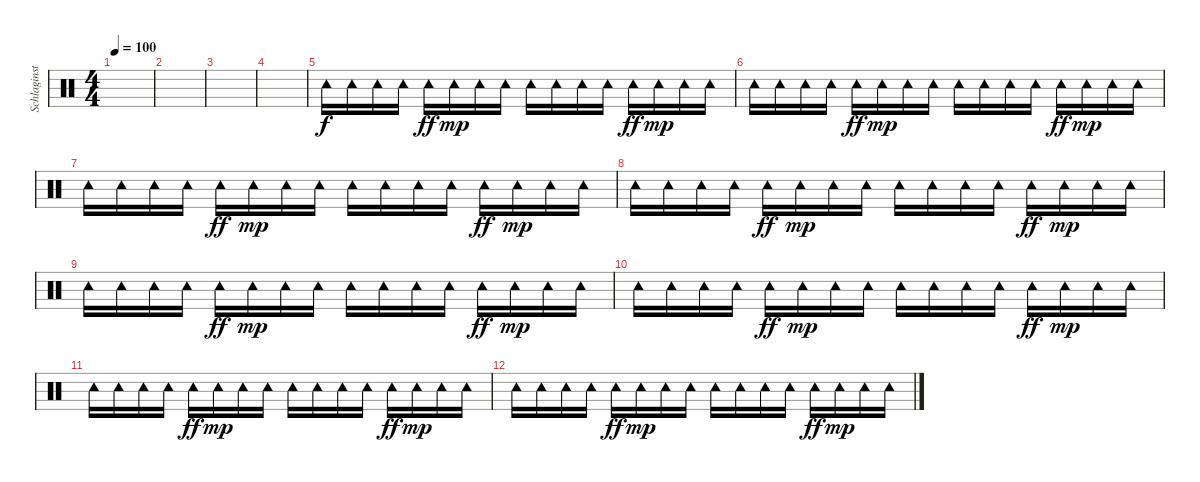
\track ("Schlaginstrumente - Auswahl" "Schlaginst") {instrument percussion}
\staff {score}
\articulation defaults
\ts (4 4)
\tempo 100
\clef neutral
\ks c
|
|
|
|
"Tambourine (hit)".16 "Tambourine (hit)".16 "Tambourine (hit)".16 "Tambourine (hit)".16 "Tambourine (hit)".16{dy ff} "Tambourine (hit)".16{dy mp} "Tambourine (hit)".16 "Tambourine (hit)".16 "Tambourine (hit)".16 "Tambourine (hit)".16 "Tambourine (hit)".16 "Tambourine (hit)".16 "Tambourine (hit)".16{dy ff} "Tambourine (hit)".16{dy mp} "Tambourine (hit)".16 "Tambourine (hit)".16 |
"Tambourine (hit)".16 "Tambourine (hit)".16 "Tambourine (hit)".16 "Tambourine (hit)".16 "Tambourine (hit)".16{dy ff} "Tambourine (hit)".16{dy mp} "Tambourine (hit)".16 "Tambourine (hit)".16 "Tambourine (hit)".16 "Tambourine (hit)".16 "Tambourine (hit)".16 "Tambourine (hit)".16 "Tambourine (hit)".16{dy ff} "Tambourine (hit)".16{dy mp} "Tambourine (hit)".16 "Tambourine (hit)".16 |
"Tambourine (hit)".16 "Tambourine (hit)".16 "Tambourine (hit)".16 "Tambourine (hit)".16 "Tambourine (hit)".16{dy ff} "Tambourine (hit)".16{dy mp} "Tambourine (hit)".16 "Tambourine (hit)".16 "Tambourine (hit)".16 "Tambourine (hit)".16 "Tambourine (hit)".16 "Tambourine (hit)".16 "Tambourine (hit)".16{dy ff} "Tambourine (hit)".16{dy mp} "Tambourine (hit)".16 "Tambourine (hit)".16 |
"Tambourine (hit)".16 "Tambourine (hit)".16 "Tambourine (hit)".16 "Tambourine (hit)".16 "Tambourine (hit)".16{dy ff} "Tambourine (hit)".16{dy mp} "Tambourine (hit)".16 "Tambourine (hit)".16 "Tambourine (hit)".16 "Tambourine (hit)".16 "Tambourine (hit)".16 "Tambourine (hit)".16 "Tambourine (hit)".16{dy ff} "Tambourine (hit)".16{dy mp} "Tambourine (hit)".16 "Tambourine (hit)".16 |
"Tambourine (hit)".16 "Tambourine (hit)".16 "Tambourine (hit)".16 "Tambourine (hit)".16 "Tambourine (hit)".16{dy ff} "Tambourine (hit)".16{dy mp} "Tambourine (hit)".16 "Tambourine (hit)".16 "Tambourine (hit)".16 "Tambourine (hit)".16 "Tambourine (hit)".16 "Tambourine (hit)".16 "Tambourine (hit)".16{dy ff} "Tambourine (hit)".16{dy mp} "Tambourine (hit)".16 "Tambourine (hit)".16 |
"Tambourine (hit)".16 "Tambourine (hit)".16 "Tambourine (hit)".16 "Tambourine (hit)".16 "Tambourine (hit)".16{dy ff} "Tambourine (hit)".16{dy mp} "Tambourine (hit)".16 "Tambourine (hit)".16 "Tambourine (hit)".16 "Tambourine (hit)".16 "Tambourine (hit)".16 "Tambourine (hit)".16 "Tambourine (hit)".16{dy ff} "Tambourine (hit)".16{dy mp} "Tambourine (hit)".16 "Tambourine (hit)".16 |
"Tambourine (hit)".16 "Tambourine (hit)".16 "Tambourine (hit)".16 "Tambourine (hit)".16 "Tambourine (hit)".16{dy ff} "Tambourine (hit)".16{dy mp} "Tambourine (hit)".16 "Tambourine (hit)".16 "Tambourine (hit)".16 "Tambourine (hit)".16 "Tambourine (hit)".16 "Tambourine (hit)".16 "Tambourine (hit)".16{dy ff} "Tambourine (hit)".16{dy mp} "Tambourine (hit)".16 "Tambourine (hit)".16 |
"Tambourine (hit)".16 "Tambourine (hit)".16 "Tambourine (hit)".16 "Tambourine (hit)".16 "Tambourine (hit)".16{dy ff} "Tambourine (hit)".16{dy mp} "Tambourine (hit)".16 "Tambourine (hit)".16 "Tambourine (hit)".16 "Tambourine (hit)".16 "Tambourine (hit)".16 "Tambourine (hit)".16 "Tambourine (hit)".16{dy ff} "Tambourine (hit)".16{dy mp} "Tambourine (hit)".16 "Tambourine (hit)".16
